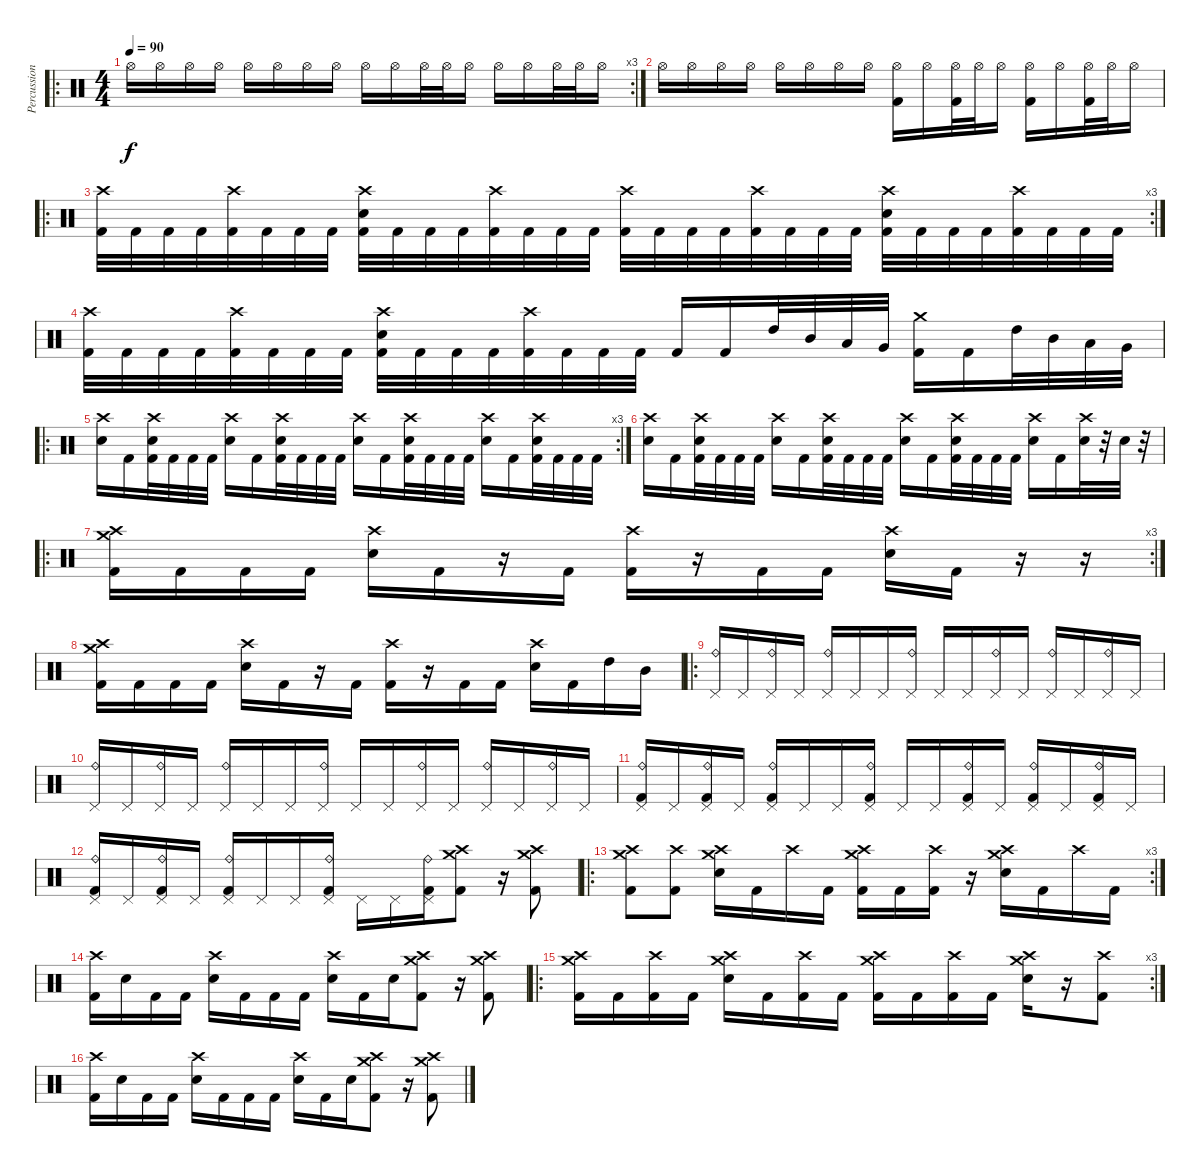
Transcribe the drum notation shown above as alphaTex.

\track ("Percussion" "Percussion") {instrument percussion}
\staff {score}
\articulation defaults
\ro
\rc 3
\ts (4 4)
\tempo 90
\clef neutral
\ks c "Hi-Hat (open)".16{dy f} "Hi-Hat (open)".16 "Hi-Hat (open)".16 "Hi-Hat (open)".16 "Hi-Hat (open)".16 "Hi-Hat (open)".16 "Hi-Hat (open)".16 "Hi-Hat (open)".16 "Hi-Hat (open)".16 "Hi-Hat (open)".16 "Hi-Hat (open)".32 "Hi-Hat (open)".32 "Hi-Hat (open)".16 "Hi-Hat (open)".16 "Hi-Hat (open)".16 "Hi-Hat (open)".32 "Hi-Hat (open)".32 "Hi-Hat (open)".16
|
"Hi-Hat (open)".16 "Hi-Hat (open)".16 "Hi-Hat (open)".16 "Hi-Hat (open)".16 "Hi-Hat (open)".16 "Hi-Hat (open)".16 "Hi-Hat (open)".16 "Hi-Hat (open)".16 ("Kick (hit) 2" "Hi-Hat (open)").16 "Hi-Hat (open)".16 ("Kick (hit) 2" "Hi-Hat (open)").32 "Hi-Hat (open)".32 "Hi-Hat (open)".16 ("Kick (hit) 2" "Hi-Hat (open)").16 "Hi-Hat (open)".16 ("Kick (hit) 2" "Hi-Hat (open)").32 "Hi-Hat (open)".32 "Hi-Hat (open)".16 |
\ro
\rc 3
("Crash high (hit)" "Kick (hit) 2").32 "Kick (hit) 2".32 "Kick (hit) 2".32 "Kick (hit) 2".32 ("Crash high (hit)" "Kick (hit) 2").32 "Kick (hit) 2".32 "Kick (hit) 2".32 "Kick (hit) 2".32 ("Crash high (hit)" "Electric Snare (hit)" "Kick (hit) 2").32 "Kick (hit) 2".32 "Kick (hit) 2".32 "Kick (hit) 2".32 ("Crash high (hit)" "Kick (hit) 2").32 "Kick (hit) 2".32 "Kick (hit) 2".32 "Kick (hit) 2".32 ("Crash high (hit)" "Kick (hit) 2").32 "Kick (hit) 2".32 "Kick (hit) 2".32 "Kick (hit) 2".32 ("Crash high (hit)" "Kick (hit) 2").32 "Kick (hit) 2".32 "Kick (hit) 2".32 "Kick (hit) 2".32 ("Crash high (hit)" "Electric Snare (hit)" "Kick (hit) 2").32 "Kick (hit) 2".32 "Kick (hit) 2".32 "Kick (hit) 2".32 ("Crash high (hit)" "Kick (hit) 2").32 "Kick (hit) 2".32 "Kick (hit) 2".32 "Kick (hit) 2".32 |
("Crash high (hit)" "Kick (hit) 2").32 "Kick (hit) 2".32 "Kick (hit) 2".32 "Kick (hit) 2".32 ("Crash high (hit)" "Kick (hit) 2").32 "Kick (hit) 2".32 "Kick (hit) 2".32 "Kick (hit) 2".32 ("Crash high (hit)" "Electric Snare (hit)" "Kick (hit) 2").32 "Kick (hit) 2".32 "Kick (hit) 2".32 "Kick (hit) 2".32 ("Crash high (hit)" "Kick (hit) 2").32 "Kick (hit) 2".32 "Kick (hit) 2".32 "Kick (hit) 2".32 "Kick (hit) 2".16 "Kick (hit) 2".16 "High Tom (hit)".32 "Mid Tom (hit)".32 "Low Tom (hit)".32 "Very Low Tom (hit)".32 ("Crash medium (hit)" "Kick (hit) 2").16 "Kick (hit) 2".16 "High Tom (hit)".32 "Mid Tom (hit)".32 "Low Tom (hit)".32 "Very Low Tom (hit)".32 |
\ro
\rc 3
("Crash high (hit)" "Electric Snare (hit)").16 "Kick (hit) 2".16 ("Crash high (hit)" "Electric Snare (hit)" "Kick (hit) 2").32 "Kick (hit) 2".32 "Kick (hit) 2".32 "Kick (hit) 2".32 ("Crash high (hit)" "Electric Snare (hit)").16 "Kick (hit) 2".16 ("Crash high (hit)" "Electric Snare (hit)" "Kick (hit) 2").32 "Kick (hit) 2".32 "Kick (hit) 2".32 "Kick (hit) 2".32 ("Crash high (hit)" "Electric Snare (hit)").16 "Kick (hit) 2".16 ("Crash high (hit)" "Electric Snare (hit)" "Kick (hit) 2").32 "Kick (hit) 2".32 "Kick (hit) 2".32 "Kick (hit) 2".32 ("Crash high (hit)" "Electric Snare (hit)").16 "Kick (hit) 2".16 ("Crash high (hit)" "Electric Snare (hit)" "Kick (hit) 2").32 "Kick (hit) 2".32 "Kick (hit) 2".32 "Kick (hit) 2".32 |
("Crash high (hit)" "Electric Snare (hit)").16 "Kick (hit) 2".16 ("Crash high (hit)" "Electric Snare (hit)" "Kick (hit) 2").32 "Kick (hit) 2".32 "Kick (hit) 2".32 "Kick (hit) 2".32 ("Crash high (hit)" "Electric Snare (hit)").16 "Kick (hit) 2".16 ("Crash high (hit)" "Electric Snare (hit)" "Kick (hit) 2").32 "Kick (hit) 2".32 "Kick (hit) 2".32 "Kick (hit) 2".32 ("Crash high (hit)" "Electric Snare (hit)").16 "Kick (hit) 2".16 ("Crash high (hit)" "Electric Snare (hit)" "Kick (hit) 2").32 "Kick (hit) 2".32 "Kick (hit) 2".32 "Kick (hit) 2".32 ("Crash high (hit)" "Electric Snare (hit)").16 "Kick (hit) 2".16 ("Crash high (hit)" "Electric Snare (hit)").32 r.32 "Electric Snare (hit)".32 r.32 |
\ro
\rc 3
("Crash medium (hit)" "Crash high (hit)" "Kick (hit) 2").16 "Kick (hit) 2".16 "Kick (hit) 2".16 "Kick (hit) 2".16 ("Crash high (hit)" "Electric Snare (hit)").16 "Kick (hit) 2".16 r.16 "Kick (hit) 2".16 ("Crash high (hit)" "Kick (hit) 2").16 r.16 "Kick (hit) 2".16 "Kick (hit) 2".16 ("Crash high (hit)" "Electric Snare (hit)").16 "Kick (hit) 2".16 r.16 r.16 |
("Crash medium (hit)" "Crash high (hit)" "Kick (hit) 2").16 "Kick (hit) 2".16 "Kick (hit) 2".16 "Kick (hit) 2".16 ("Crash high (hit)" "Electric Snare (hit)").16 "Kick (hit) 2".16 r.16 "Kick (hit) 2".16 ("Crash high (hit)" "Kick (hit) 2").16 r.16 "Kick (hit) 2".16 "Kick (hit) 2".16 ("Crash high (hit)" "Electric Snare (hit)").16 "Kick (hit) 2".16 "High Tom (hit)".16 "Mid Tom (hit)".16 |
\ro
("Ride (bell)" "Pedal Hi-Hat (hit)").16 "Pedal Hi-Hat (hit)".16 ("Ride (bell)" "Pedal Hi-Hat (hit)").16 "Pedal Hi-Hat (hit)".16 ("Ride (bell)" "Pedal Hi-Hat (hit)").16 "Pedal Hi-Hat (hit)".16 "Pedal Hi-Hat (hit)".16 ("Ride (bell)" "Pedal Hi-Hat (hit)").16 "Pedal Hi-Hat (hit)".16 "Pedal Hi-Hat (hit)".16 ("Ride (bell)" "Pedal Hi-Hat (hit)").16 "Pedal Hi-Hat (hit)".16 ("Ride (bell)" "Pedal Hi-Hat (hit)").16 "Pedal Hi-Hat (hit)".16 ("Ride (bell)" "Pedal Hi-Hat (hit)").16 "Pedal Hi-Hat (hit)".16 |
("Ride (bell)" "Pedal Hi-Hat (hit)").16 "Pedal Hi-Hat (hit)".16 ("Ride (bell)" "Pedal Hi-Hat (hit)").16 "Pedal Hi-Hat (hit)".16 ("Ride (bell)" "Pedal Hi-Hat (hit)").16 "Pedal Hi-Hat (hit)".16 "Pedal Hi-Hat (hit)".16 ("Ride (bell)" "Pedal Hi-Hat (hit)").16 "Pedal Hi-Hat (hit)".16 "Pedal Hi-Hat (hit)".16 ("Ride (bell)" "Pedal Hi-Hat (hit)").16 "Pedal Hi-Hat (hit)".16 ("Ride (bell)" "Pedal Hi-Hat (hit)").16 "Pedal Hi-Hat (hit)".16 ("Ride (bell)" "Pedal Hi-Hat (hit)").16 "Pedal Hi-Hat (hit)".16 |
("Ride (bell)" "Pedal Hi-Hat (hit)" "Kick (hit) 2").16 "Pedal Hi-Hat (hit)".16 ("Ride (bell)" "Pedal Hi-Hat (hit)" "Kick (hit) 2").16 "Pedal Hi-Hat (hit)".16 ("Ride (bell)" "Pedal Hi-Hat (hit)" "Kick (hit) 2").16 "Pedal Hi-Hat (hit)".16 "Pedal Hi-Hat (hit)".16 ("Ride (bell)" "Pedal Hi-Hat (hit)" "Kick (hit) 2").16 "Pedal Hi-Hat (hit)".16 "Pedal Hi-Hat (hit)".16 ("Ride (bell)" "Pedal Hi-Hat (hit)" "Kick (hit) 2").16 "Pedal Hi-Hat (hit)".16 ("Ride (bell)" "Pedal Hi-Hat (hit)" "Kick (hit) 2").16 "Pedal Hi-Hat (hit)".16 ("Ride (bell)" "Pedal Hi-Hat (hit)" "Kick (hit) 2").16 "Pedal Hi-Hat (hit)".16 |
("Ride (bell)" "Pedal Hi-Hat (hit)" "Kick (hit) 2").16 "Pedal Hi-Hat (hit)".16 ("Ride (bell)" "Pedal Hi-Hat (hit)" "Kick (hit) 2").16 "Pedal Hi-Hat (hit)".16 ("Ride (bell)" "Pedal Hi-Hat (hit)" "Kick (hit) 2").16 "Pedal Hi-Hat (hit)".16 "Pedal Hi-Hat (hit)".16 ("Ride (bell)" "Pedal Hi-Hat (hit)" "Kick (hit) 2").16 "Pedal Hi-Hat (hit)".16 "Pedal Hi-Hat (hit)".16 ("Ride (bell)" "Pedal Hi-Hat (hit)" "Kick (hit) 2").16 ("Crash high (hit)" "Crash medium (hit)" "Kick (hit) 2").8 r.16 ("Crash high (hit)" "Crash medium (hit)" "Kick (hit) 2").8 |
\ro
\rc 3
("Crash high (hit)" "Crash medium (hit)" "Kick (hit) 2").8 ("Crash high (hit)" "Kick (hit) 2").8 ("Crash high (hit)" "Crash medium (hit)" "Electric Snare (hit)").16 "Kick (hit) 2".16 "Crash high (hit)".16 "Kick (hit) 2".16 ("Crash high (hit)" "Crash medium (hit)" "Kick (hit) 2").16 "Kick (hit) 2".16 ("Crash high (hit)" "Kick (hit) 2").16 r.16 ("Crash high (hit)" "Crash medium (hit)" "Electric Snare (hit)").16 "Kick (hit) 2".16 "Crash high (hit)".16 "Kick (hit) 2".16 |
("Crash high (hit)" "Kick (hit) 2").16 "Electric Snare (hit)".16 "Kick (hit) 2".16 "Kick (hit) 2".16 ("Crash high (hit)" "Electric Snare (hit)").16 "Kick (hit) 2".16 "Kick (hit) 2".16 "Kick (hit) 2".16 ("Crash high (hit)" "Electric Snare (hit)").16 "Kick (hit) 2".16 "Electric Snare (hit)".16 ("Crash high (hit)" "Crash medium (hit)" "Kick (hit) 2").8 r.16 ("Crash high (hit)" "Crash medium (hit)" "Kick (hit) 2").8 |
\ro
\rc 3
("Crash high (hit)" "Crash medium (hit)" "Kick (hit) 2").16 "Kick (hit) 2".16 ("Crash high (hit)" "Kick (hit) 2").16 "Kick (hit) 2".16 ("Crash high (hit)" "Crash medium (hit)" "Electric Snare (hit)").16 "Kick (hit) 2".16 ("Crash high (hit)" "Kick (hit) 2").16 "Kick (hit) 2".16 ("Crash high (hit)" "Crash medium (hit)" "Kick (hit) 2").16 "Kick (hit) 2".16 ("Crash high (hit)" "Kick (hit) 2").16 "Kick (hit) 2".16 ("Crash high (hit)" "Crash medium (hit)" "Electric Snare (hit)").16 r.16 ("Crash high (hit)" "Kick (hit) 2").8 |
("Crash high (hit)" "Kick (hit) 2").16 "Electric Snare (hit)".16 "Kick (hit) 2".16 "Kick (hit) 2".16 ("Crash high (hit)" "Electric Snare (hit)").16 "Kick (hit) 2".16 "Kick (hit) 2".16 "Kick (hit) 2".16 ("Crash high (hit)" "Electric Snare (hit)").16 "Kick (hit) 2".16 "Electric Snare (hit)".16 ("Crash high (hit)" "Crash medium (hit)" "Kick (hit) 2").8 r.16 ("Crash high (hit)" "Crash medium (hit)" "Kick (hit) 2").8
